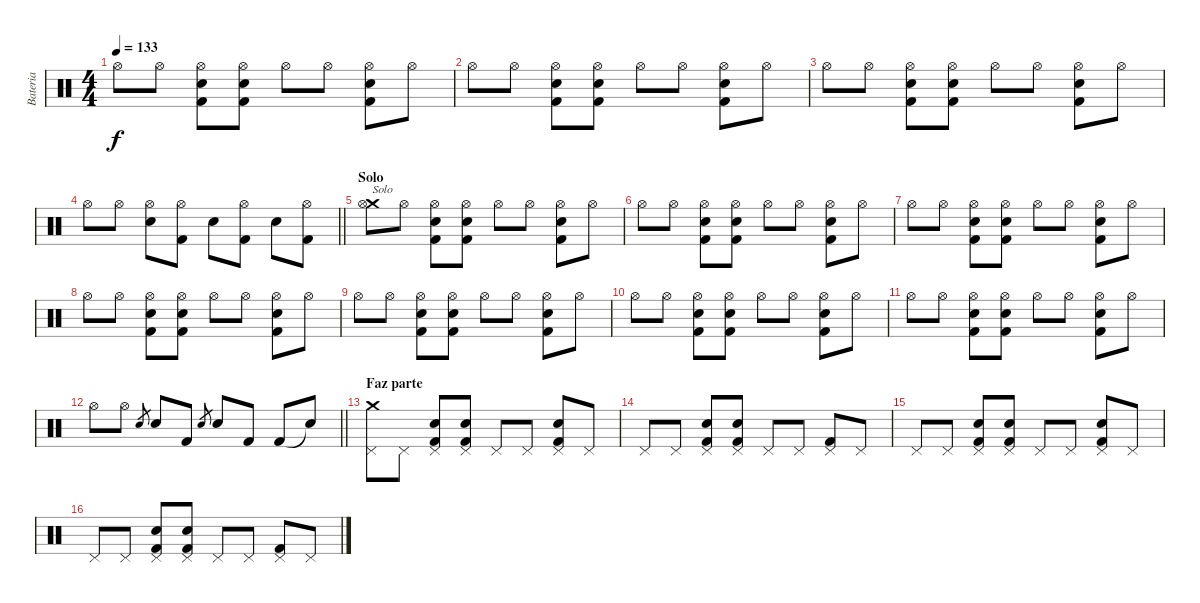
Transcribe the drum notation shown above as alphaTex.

\track ("Bateria" "Bateria") {instrument percussion}
\staff {score}
\articulation defaults
\ts (4 4)
\tempo 133
\clef neutral
\ks c "Hi-Hat (open)".8{dy f} "Hi-Hat (open)".8
("Kick (hit) 2" "Hi-Hat (open)" "Electric Snare (hit)").8 ("Kick (hit) 2" "Hi-Hat (open)" "Electric Snare (hit)").8 "Hi-Hat (open)".8 "Hi-Hat (open)".8 ("Kick (hit) 2" "Hi-Hat (open)" "Electric Snare (hit)").8 "Hi-Hat (open)".8 |
"Hi-Hat (open)".8 "Hi-Hat (open)".8 ("Kick (hit) 2" "Hi-Hat (open)" "Electric Snare (hit)").8 ("Kick (hit) 2" "Hi-Hat (open)" "Electric Snare (hit)").8 "Hi-Hat (open)".8 "Hi-Hat (open)".8 ("Kick (hit) 2" "Hi-Hat (open)" "Electric Snare (hit)").8 "Hi-Hat (open)".8 |
"Hi-Hat (open)".8 "Hi-Hat (open)".8 ("Kick (hit) 2" "Hi-Hat (open)" "Electric Snare (hit)").8 ("Kick (hit) 2" "Hi-Hat (open)" "Electric Snare (hit)").8 "Hi-Hat (open)".8 "Hi-Hat (open)".8 ("Kick (hit) 2" "Hi-Hat (open)" "Electric Snare (hit)").8 "Hi-Hat (open)".8 |
\barLineRight lightlight "Hi-Hat (open)".8 "Hi-Hat (open)".8
("Hi-Hat (open)" "Electric Snare (hit)").8 ("Kick (hit) 2" "Hi-Hat (open)").8 "Electric Snare (hit)".8 ("Kick (hit) 2" "Hi-Hat (open)").8 "Electric Snare (hit)".8 ("Kick (hit) 2" "Hi-Hat (open)").8 |
\section ("" "Solo")
("Crash medium (hit)" "Hi-Hat (open)").8{txt "Solo"} "Hi-Hat (open)".8 ("Kick (hit) 2" "Hi-Hat (open)" "Electric Snare (hit)").8 ("Kick (hit) 2" "Hi-Hat (open)" "Electric Snare (hit)").8 "Hi-Hat (open)".8 "Hi-Hat (open)".8 ("Kick (hit) 2" "Hi-Hat (open)" "Electric Snare (hit)").8 "Hi-Hat (open)".8 |
"Hi-Hat (open)".8 "Hi-Hat (open)".8 ("Kick (hit) 2" "Hi-Hat (open)" "Electric Snare (hit)").8 ("Kick (hit) 2" "Hi-Hat (open)" "Electric Snare (hit)").8 "Hi-Hat (open)".8 "Hi-Hat (open)".8 ("Kick (hit) 2" "Hi-Hat (open)" "Electric Snare (hit)").8 "Hi-Hat (open)".8 |
"Hi-Hat (open)".8 "Hi-Hat (open)".8 ("Kick (hit) 2" "Hi-Hat (open)" "Electric Snare (hit)").8 ("Kick (hit) 2" "Hi-Hat (open)" "Electric Snare (hit)").8 "Hi-Hat (open)".8 "Hi-Hat (open)".8 ("Kick (hit) 2" "Hi-Hat (open)" "Electric Snare (hit)").8 "Hi-Hat (open)".8 |
"Hi-Hat (open)".8 "Hi-Hat (open)".8 ("Kick (hit) 2" "Hi-Hat (open)" "Electric Snare (hit)").8 ("Kick (hit) 2" "Hi-Hat (open)" "Electric Snare (hit)").8 "Hi-Hat (open)".8 "Hi-Hat (open)".8 ("Kick (hit) 2" "Hi-Hat (open)" "Electric Snare (hit)").8 "Hi-Hat (open)".8 |
"Hi-Hat (open)".8 "Hi-Hat (open)".8 ("Kick (hit) 2" "Hi-Hat (open)" "Electric Snare (hit)").8 ("Kick (hit) 2" "Hi-Hat (open)" "Electric Snare (hit)").8 "Hi-Hat (open)".8 "Hi-Hat (open)".8 ("Kick (hit) 2" "Hi-Hat (open)" "Electric Snare (hit)").8 "Hi-Hat (open)".8 |
"Hi-Hat (open)".8 "Hi-Hat (open)".8 ("Kick (hit) 2" "Hi-Hat (open)" "Electric Snare (hit)").8 ("Kick (hit) 2" "Hi-Hat (open)" "Electric Snare (hit)").8 "Hi-Hat (open)".8 "Hi-Hat (open)".8 ("Kick (hit) 2" "Hi-Hat (open)" "Electric Snare (hit)").8 "Hi-Hat (open)".8 |
"Hi-Hat (open)".8 "Hi-Hat (open)".8 ("Kick (hit) 2" "Hi-Hat (open)" "Electric Snare (hit)").8 ("Kick (hit) 2" "Hi-Hat (open)" "Electric Snare (hit)").8 "Hi-Hat (open)".8 "Hi-Hat (open)".8 ("Kick (hit) 2" "Hi-Hat (open)" "Electric Snare (hit)").8 "Hi-Hat (open)".8 |
\barLineRight lightlight "Hi-Hat (open)".8 "Hi-Hat (open)".8 "Electric Snare (hit)".8{gr} "Electric Snare (hit)".8 "Kick (hit) 2".8 "Electric Snare (hit)".8{gr} "Electric Snare (hit)".8 "Kick (hit) 2".8 "Kick (hit) 2".8 "Snare (hit)"{t}.8
|
\section ("" "Faz parte")
("Crash medium (hit)" "Pedal Hi-Hat (hit)").8 "Pedal Hi-Hat (hit)".8 ("Kick (hit) 2" "Pedal Hi-Hat (hit)" "Electric Snare (hit)").8 ("Kick (hit) 2" "Pedal Hi-Hat (hit)" "Electric Snare (hit)").8 "Pedal Hi-Hat (hit)".8 "Pedal Hi-Hat (hit)".8 ("Kick (hit) 2" "Pedal Hi-Hat (hit)" "Electric Snare (hit)").8 "Pedal Hi-Hat (hit)".8 |
"Pedal Hi-Hat (hit)".8 "Pedal Hi-Hat (hit)".8 ("Kick (hit) 2" "Pedal Hi-Hat (hit)" "Electric Snare (hit)").8 ("Kick (hit) 2" "Pedal Hi-Hat (hit)" "Electric Snare (hit)").8 "Pedal Hi-Hat (hit)".8 "Pedal Hi-Hat (hit)".8 ("Kick (hit) 2" "Pedal Hi-Hat (hit)").8 "Pedal Hi-Hat (hit)".8 |
"Pedal Hi-Hat (hit)".8 "Pedal Hi-Hat (hit)".8 ("Kick (hit) 2" "Pedal Hi-Hat (hit)" "Electric Snare (hit)").8 ("Kick (hit) 2" "Pedal Hi-Hat (hit)" "Electric Snare (hit)").8 "Pedal Hi-Hat (hit)".8 "Pedal Hi-Hat (hit)".8 ("Kick (hit) 2" "Pedal Hi-Hat (hit)" "Electric Snare (hit)").8 "Pedal Hi-Hat (hit)".8 |
"Pedal Hi-Hat (hit)".8 "Pedal Hi-Hat (hit)".8 ("Kick (hit) 2" "Pedal Hi-Hat (hit)" "Electric Snare (hit)").8 ("Kick (hit) 2" "Pedal Hi-Hat (hit)" "Electric Snare (hit)").8 "Pedal Hi-Hat (hit)".8 "Pedal Hi-Hat (hit)".8 ("Kick (hit) 2" "Pedal Hi-Hat (hit)").8 "Pedal Hi-Hat (hit)".8
